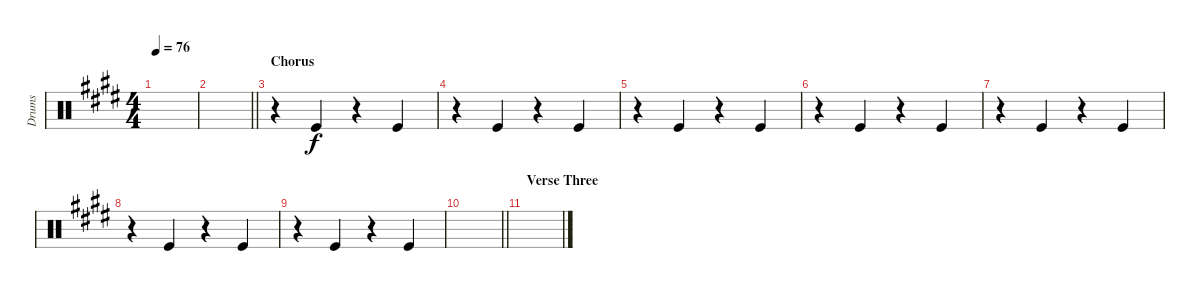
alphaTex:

\track ("Drums" "Drums") {instrument percussion}
\staff {score}
\articulation defaults
\ts (4 4)
\tempo 76
\clef neutral
\ks e
|
\barLineRight lightlight
|
\section ("" "Chorus")
r.4 "Kick (hit)".4 r.4 "Kick (hit)".4 |
r.4 "Kick (hit)".4 r.4 "Kick (hit)".4 |
r.4 "Kick (hit)".4 r.4 "Kick (hit)".4 |
r.4 "Kick (hit)".4 r.4 "Kick (hit)".4 |
r.4 "Kick (hit)".4 r.4 "Kick (hit)".4 |
r.4 "Kick (hit)".4 r.4 "Kick (hit)".4 |
r.4 "Kick (hit)".4 r.4 "Kick (hit)".4 |
\barLineRight lightlight
|
\section ("" "Verse Three")
